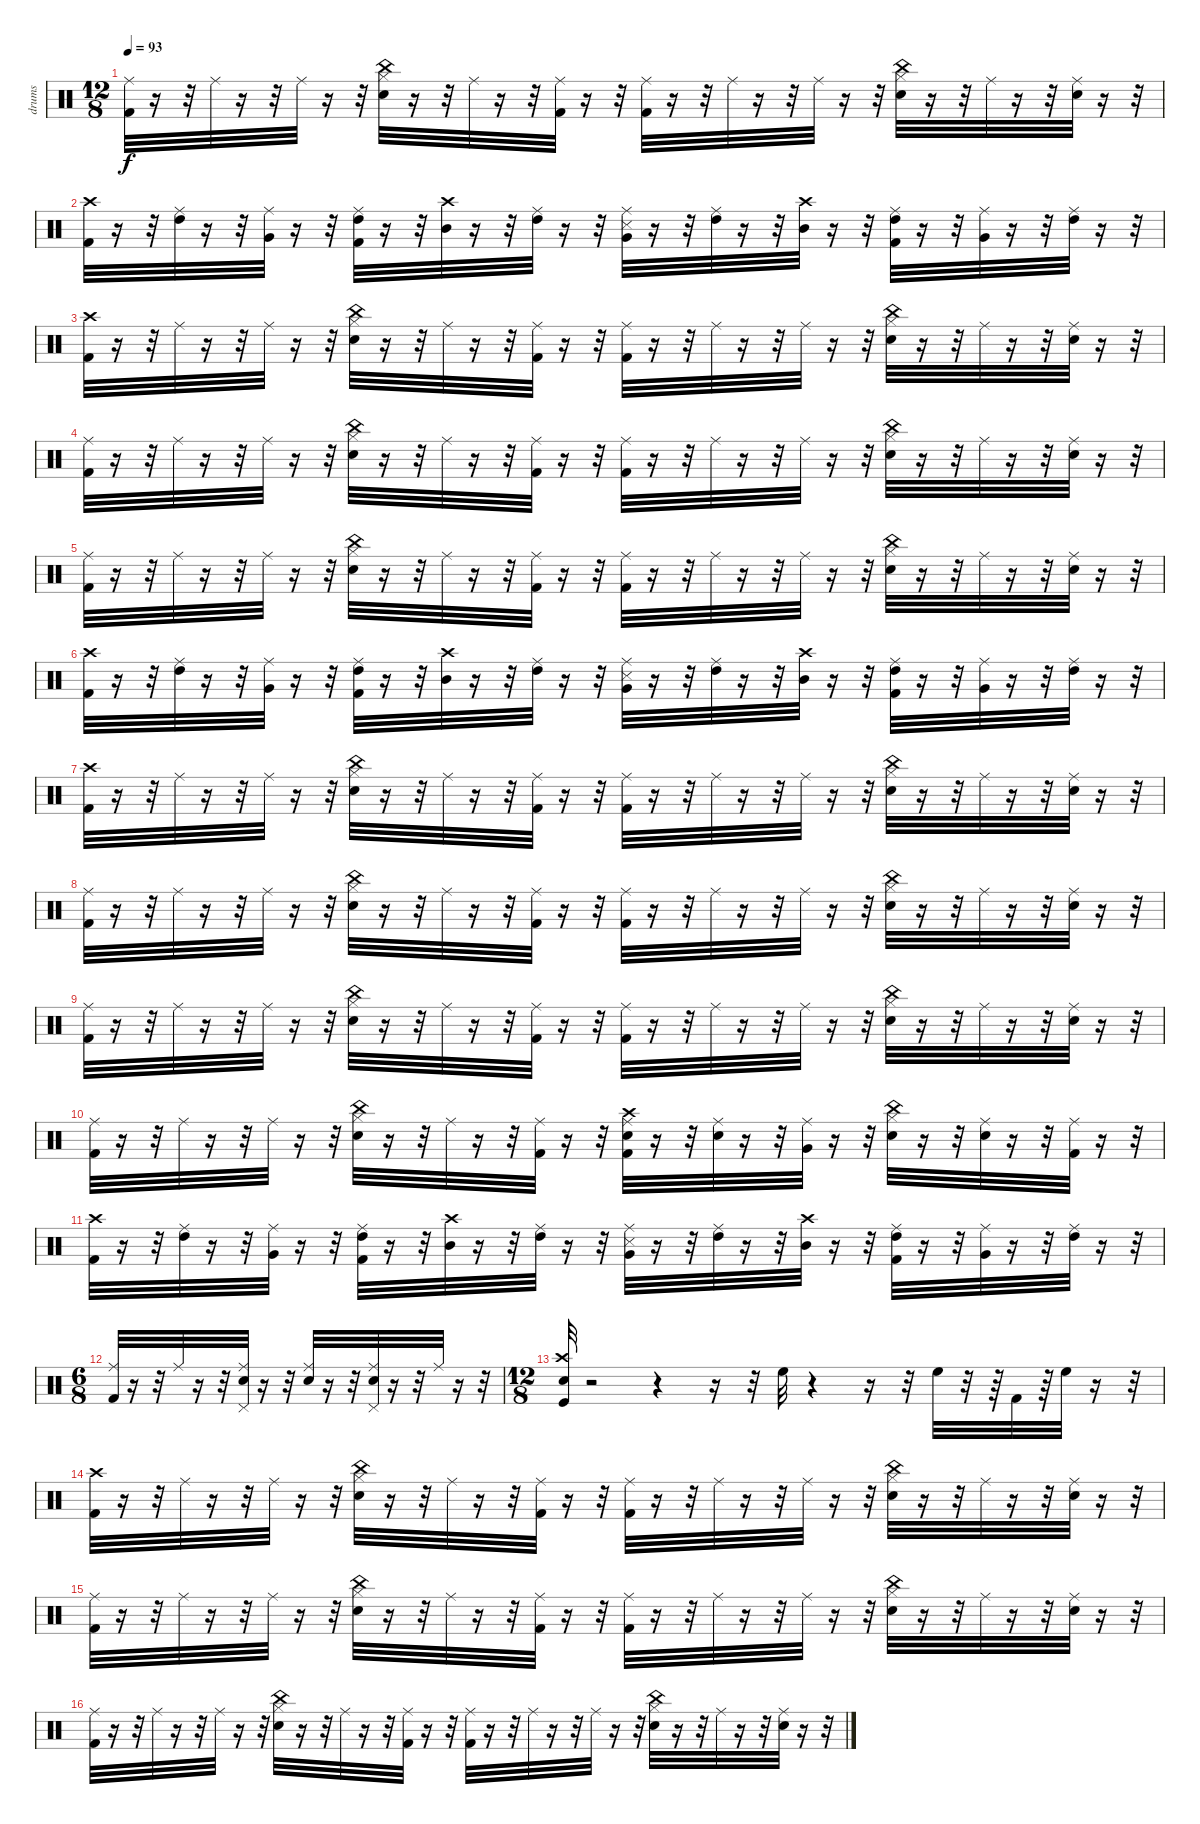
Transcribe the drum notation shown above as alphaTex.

\track ("drums" "drums") {instrument percussion}
\staff {score}
\articulation defaults
\ts (12 8)
\tempo 93
\clef neutral
\ks c
("Kick (hit) 2" "Ride (middle)").32{dy f} r.16 r.32 "Ride (middle)".32 r.16 r.32 "Ride (middle)".32 r.16 r.32 ("China (hit)" "Hi-Hat (closed)" "Snare (hit) 2").32 r.16 r.32 "Ride (middle)".32 r.16 r.32 ("Ride (middle)" "Kick (hit) 2").32 r.16 r.32 ("Kick (hit) 2" "Ride (middle)").32 r.16 r.32 "Ride (middle)".32 r.16 r.32 "Ride (middle)".32 r.16 r.32 ("China (hit)" "Hi-Hat (closed)" "Snare (hit) 2").32 r.16 r.32 "Ride (middle)".32 r.16 r.32 ("Ride (middle)" "Snare (hit) 2").32 r.16 r.32 |
("Kick (hit) 2" "Crash high (hit)").32 r.16 r.32 ("Ride (middle)" "High Tom (hit)").32 r.16 r.32 ("Very Low Tom (hit)" "Ride (middle)").32 r.16 r.32 ("Ride (middle)" "Kick (hit) 2" "High Tom (hit)").32 r.16 r.32 ("Mid Tom (hit)" "Crash high (hit)").32 r.16 r.32 ("Ride (middle)" "High Tom (hit)").32 r.16 r.32 ("Very Low Tom (hit)" "Snare (side stick) 3" "Ride (middle)").32 r.16 r.32 ("Ride (middle)" "High Tom (hit)").32 r.16 r.32 ("Mid Tom (hit)" "Crash high (hit)").32 r.16 r.32 ("Ride (middle)" "Kick (hit) 2" "High Tom (hit)").32 r.16 r.32 ("Very Low Tom (hit)" "Ride (middle)").32 r.16 r.32 ("Ride (middle)" "High Tom (hit)").32 r.16 r.32 |
("Kick (hit) 2" "Crash high (hit)").32 r.16 r.32 "Ride (middle)".32 r.16 r.32 "Ride (middle)".32 r.16 r.32 ("China (hit)" "Hi-Hat (closed)" "Snare (hit) 2").32 r.16 r.32 "Ride (middle)".32 r.16 r.32 ("Ride (middle)" "Kick (hit) 2").32 r.16 r.32 ("Kick (hit) 2" "Ride (middle)").32 r.16 r.32 "Ride (middle)".32 r.16 r.32 "Ride (middle)".32 r.16 r.32 ("China (hit)" "Hi-Hat (closed)" "Snare (hit) 2").32 r.16 r.32 "Ride (middle)".32 r.16 r.32 ("Ride (middle)" "Snare (hit) 2").32 r.16 r.32 |
("Kick (hit) 2" "Ride (middle)").32 r.16 r.32 "Ride (middle)".32 r.16 r.32 "Ride (middle)".32 r.16 r.32 ("China (hit)" "Hi-Hat (closed)" "Snare (hit) 2").32 r.16 r.32 "Ride (middle)".32 r.16 r.32 ("Ride (middle)" "Kick (hit) 2").32 r.16 r.32 ("Kick (hit) 2" "Ride (middle)").32 r.16 r.32 "Ride (middle)".32 r.16 r.32 "Ride (middle)".32 r.16 r.32 ("China (hit)" "Hi-Hat (closed)" "Snare (hit) 2").32 r.16 r.32 "Ride (middle)".32 r.16 r.32 ("Ride (middle)" "Snare (hit) 2").32 r.16 r.32 |
("Kick (hit) 2" "Ride (middle)").32 r.16 r.32 "Ride (middle)".32 r.16 r.32 "Ride (middle)".32 r.16 r.32 ("China (hit)" "Hi-Hat (closed)" "Snare (hit) 2").32 r.16 r.32 "Ride (middle)".32 r.16 r.32 ("Ride (middle)" "Kick (hit) 2").32 r.16 r.32 ("Kick (hit) 2" "Ride (middle)").32 r.16 r.32 "Ride (middle)".32 r.16 r.32 "Ride (middle)".32 r.16 r.32 ("China (hit)" "Hi-Hat (closed)" "Snare (hit) 2").32 r.16 r.32 "Ride (middle)".32 r.16 r.32 ("Ride (middle)" "Snare (hit) 2").32 r.16 r.32 |
("Kick (hit) 2" "Crash high (hit)").32 r.16 r.32 ("Ride (middle)" "High Tom (hit)").32 r.16 r.32 ("Very Low Tom (hit)" "Ride (middle)").32 r.16 r.32 ("Ride (middle)" "Kick (hit) 2" "High Tom (hit)").32 r.16 r.32 ("Mid Tom (hit)" "Crash high (hit)").32 r.16 r.32 ("Ride (middle)" "High Tom (hit)").32 r.16 r.32 ("Very Low Tom (hit)" "Snare (side stick) 3" "Ride (middle)").32 r.16 r.32 ("Ride (middle)" "High Tom (hit)").32 r.16 r.32 ("Mid Tom (hit)" "Crash high (hit)").32 r.16 r.32 ("Ride (middle)" "Kick (hit) 2" "High Tom (hit)").32 r.16 r.32 ("Very Low Tom (hit)" "Ride (middle)").32 r.16 r.32 ("Ride (middle)" "High Tom (hit)").32 r.16 r.32 |
("Kick (hit) 2" "Crash high (hit)").32 r.16 r.32 "Ride (middle)".32 r.16 r.32 "Ride (middle)".32 r.16 r.32 ("China (hit)" "Hi-Hat (closed)" "Snare (hit) 2").32 r.16 r.32 "Ride (middle)".32 r.16 r.32 ("Ride (middle)" "Kick (hit) 2").32 r.16 r.32 ("Kick (hit) 2" "Ride (middle)").32 r.16 r.32 "Ride (middle)".32 r.16 r.32 "Ride (middle)".32 r.16 r.32 ("China (hit)" "Hi-Hat (closed)" "Snare (hit) 2").32 r.16 r.32 "Ride (middle)".32 r.16 r.32 ("Ride (middle)" "Snare (hit) 2").32 r.16 r.32 |
("Kick (hit) 2" "Ride (middle)").32 r.16 r.32 "Ride (middle)".32 r.16 r.32 "Ride (middle)".32 r.16 r.32 ("China (hit)" "Hi-Hat (closed)" "Snare (hit) 2").32 r.16 r.32 "Ride (middle)".32 r.16 r.32 ("Ride (middle)" "Kick (hit) 2").32 r.16 r.32 ("Kick (hit) 2" "Ride (middle)").32 r.16 r.32 "Ride (middle)".32 r.16 r.32 "Ride (middle)".32 r.16 r.32 ("China (hit)" "Hi-Hat (closed)" "Snare (hit) 2").32 r.16 r.32 "Ride (middle)".32 r.16 r.32 ("Ride (middle)" "Snare (hit) 2").32 r.16 r.32 |
("Kick (hit) 2" "Ride (middle)").32 r.16 r.32 "Ride (middle)".32 r.16 r.32 "Ride (middle)".32 r.16 r.32 ("China (hit)" "Hi-Hat (closed)" "Snare (hit) 2").32 r.16 r.32 "Ride (middle)".32 r.16 r.32 ("Ride (middle)" "Kick (hit) 2").32 r.16 r.32 ("Kick (hit) 2" "Ride (middle)").32 r.16 r.32 "Ride (middle)".32 r.16 r.32 "Ride (middle)".32 r.16 r.32 ("China (hit)" "Hi-Hat (closed)" "Snare (hit) 2").32 r.16 r.32 "Ride (middle)".32 r.16 r.32 ("Ride (middle)" "Snare (hit) 2").32 r.16 r.32 |
("Kick (hit) 2" "Ride (middle)").32 r.16 r.32 "Ride (middle)".32 r.16 r.32 "Ride (middle)".32 r.16 r.32 ("China (hit)" "Hi-Hat (closed)" "Snare (hit) 2").32 r.16 r.32 "Ride (middle)".32 r.16 r.32 ("Ride (middle)" "Kick (hit) 2").32 r.16 r.32 ("Kick (hit) 2" "Ride (middle)" "Snare (hit) 2" "Crash high (hit)").32 r.16 r.32 ("Snare (hit) 2" "Ride (middle)").32 r.16 r.32 ("Ride (middle)" "Very Low Tom (hit)").32 r.16 r.32 ("China (hit)" "Hi-Hat (closed)" "Snare (hit) 2").32 r.16 r.32 ("Ride (middle)" "Snare (hit) 2").32 r.16 r.32 ("Kick (hit) 2" "Ride (middle)").32 r.16 r.32 |
("Kick (hit) 2" "Crash high (hit)").32 r.16 r.32 ("Ride (middle)" "High Tom (hit)").32 r.16 r.32 ("Very Low Tom (hit)" "Ride (middle)").32 r.16 r.32 ("Ride (middle)" "Kick (hit) 2" "High Tom (hit)").32 r.16 r.32 ("Mid Tom (hit)" "Crash high (hit)").32 r.16 r.32 ("Ride (middle)" "High Tom (hit)").32 r.16 r.32 ("Very Low Tom (hit)" "Snare (side stick) 3" "Ride (middle)").32 r.16 r.32 ("Ride (middle)" "High Tom (hit)").32 r.16 r.32 ("Mid Tom (hit)" "Crash high (hit)").32 r.16 r.32 ("Ride (middle)" "Kick (hit) 2" "High Tom (hit)").32 r.16 r.32 ("Very Low Tom (hit)" "Ride (middle)").32 r.16 r.32 ("Ride (middle)" "High Tom (hit)").32 r.16 r.32 |
\ts (6 8)
("Kick (hit) 2" "Ride (middle)").32 r.16 r.32 "Ride (middle)".32 r.16 r.32 ("Pedal Hi-Hat (hit)" "Ride (middle)" "Snare (hit) 2").32 r.16 r.32 ("Snare (hit) 2" "Ride (middle)").32 r.16 r.32 ("Pedal Hi-Hat (hit)" "Ride (middle)" "Snare (hit) 2").32 r.16 r.32 "Ride (middle)".32 r.16 r.32 |
\ts (12 8)
("Crash high (hit)" "Snare (hit) 2" "Kick (hit)").32 r.2 r.4 r.16 r.32 "High Floor Tom (hit)".32 r.4 r.16 r.32 "High Floor Tom (hit)".32 r.32 r.64 "Kick (hit) 2".32 r.64 "High Floor Tom (hit)".32 r.16 r.32 |
("Kick (hit) 2" "Crash high (hit)").32 r.16 r.32 "Ride (middle)".32 r.16 r.32 "Ride (middle)".32 r.16 r.32 ("China (hit)" "Hi-Hat (closed)" "Snare (hit) 2").32 r.16 r.32 "Ride (middle)".32 r.16 r.32 ("Ride (middle)" "Kick (hit) 2").32 r.16 r.32 ("Kick (hit) 2" "Ride (middle)").32 r.16 r.32 "Ride (middle)".32 r.16 r.32 "Ride (middle)".32 r.16 r.32 ("China (hit)" "Hi-Hat (closed)" "Snare (hit) 2").32 r.16 r.32 "Ride (middle)".32 r.16 r.32 ("Ride (middle)" "Snare (hit) 2").32 r.16 r.32 |
("Kick (hit) 2" "Ride (middle)").32 r.16 r.32 "Ride (middle)".32 r.16 r.32 "Ride (middle)".32 r.16 r.32 ("China (hit)" "Hi-Hat (closed)" "Snare (hit) 2").32 r.16 r.32 "Ride (middle)".32 r.16 r.32 ("Ride (middle)" "Kick (hit) 2").32 r.16 r.32 ("Kick (hit) 2" "Ride (middle)").32 r.16 r.32 "Ride (middle)".32 r.16 r.32 "Ride (middle)".32 r.16 r.32 ("China (hit)" "Hi-Hat (closed)" "Snare (hit) 2").32 r.16 r.32 "Ride (middle)".32 r.16 r.32 ("Ride (middle)" "Snare (hit) 2").32 r.16 r.32 |
("Kick (hit) 2" "Ride (middle)").32 r.16 r.32 "Ride (middle)".32 r.16 r.32 "Ride (middle)".32 r.16 r.32 ("China (hit)" "Hi-Hat (closed)" "Snare (hit) 2").32 r.16 r.32 "Ride (middle)".32 r.16 r.32 ("Ride (middle)" "Kick (hit) 2").32 r.16 r.32 ("Kick (hit) 2" "Ride (middle)").32 r.16 r.32 "Ride (middle)".32 r.16 r.32 "Ride (middle)".32 r.16 r.32 ("China (hit)" "Hi-Hat (closed)" "Snare (hit) 2").32 r.16 r.32 "Ride (middle)".32 r.16 r.32 ("Ride (middle)" "Snare (hit) 2").32 r.16 r.32
